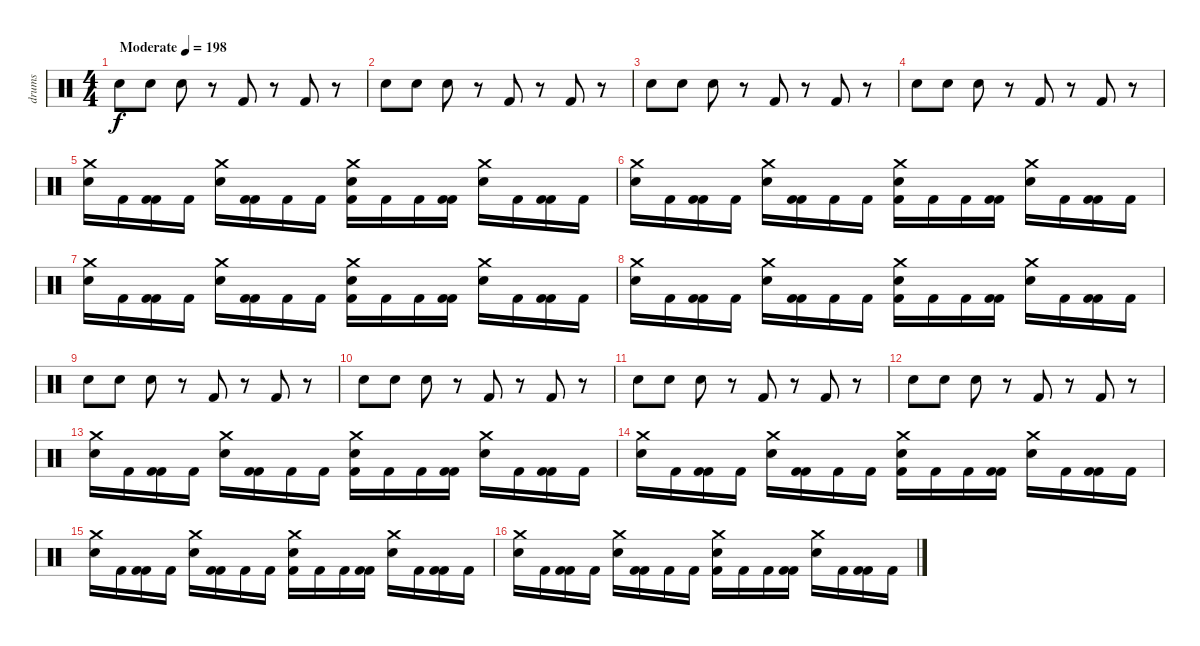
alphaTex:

\track ("drums" "drums") {instrument percussion}
\staff {score}
\articulation defaults
\ts (4 4)
\tempo (198 "Moderate")
\clef neutral
\ks c "Snare (hit) 2".8{dy f} "Snare (hit) 2".8 "Snare (hit) 2".8
r.8 "Kick (hit) 2".8 r.8 "Kick (hit) 2".8 r.8 |
"Snare (hit) 2".8 "Snare (hit) 2".8 "Snare (hit) 2".8 r.8 "Kick (hit) 2".8 r.8 "Kick (hit) 2".8 r.8 |
"Snare (hit) 2".8 "Snare (hit) 2".8 "Snare (hit) 2".8 r.8 "Kick (hit) 2".8 r.8 "Kick (hit) 2".8 r.8 |
"Snare (hit) 2".8 "Snare (hit) 2".8 "Snare (hit) 2".8 r.8 "Kick (hit) 2".8 r.8 "Kick (hit) 2".8 r.8 |
("Snare (hit) 2" "Crash medium (hit)").16 "Kick (hit) 2".16 ("Kick (hit) 2" "Kick (hit) 2").16 "Kick (hit) 2".16 ("Snare (hit) 2" "Crash medium (hit)").16 ("Kick (hit) 2" "Kick (hit) 2").16 "Kick (hit) 2".16 "Kick (hit) 2".16 ("Snare (hit) 2" "Kick (hit) 2" "Crash medium (hit)").16 "Kick (hit) 2".16 "Kick (hit) 2".16 ("Kick (hit) 2" "Kick (hit) 2").16 ("Snare (hit) 2" "Crash medium (hit)").16 "Kick (hit) 2".16 ("Kick (hit) 2" "Kick (hit) 2").16 "Kick (hit) 2".16 |
("Snare (hit) 2" "Crash medium (hit)").16 "Kick (hit) 2".16 ("Kick (hit) 2" "Kick (hit) 2").16 "Kick (hit) 2".16 ("Snare (hit) 2" "Crash medium (hit)").16 ("Kick (hit) 2" "Kick (hit) 2").16 "Kick (hit) 2".16 "Kick (hit) 2".16 ("Snare (hit) 2" "Kick (hit) 2" "Crash medium (hit)").16 "Kick (hit) 2".16 "Kick (hit) 2".16 ("Kick (hit) 2" "Kick (hit) 2").16 ("Snare (hit) 2" "Crash medium (hit)").16 "Kick (hit) 2".16 ("Kick (hit) 2" "Kick (hit) 2").16 "Kick (hit) 2".16 |
("Snare (hit) 2" "Crash medium (hit)").16 "Kick (hit) 2".16 ("Kick (hit) 2" "Kick (hit) 2").16 "Kick (hit) 2".16 ("Snare (hit) 2" "Crash medium (hit)").16 ("Kick (hit) 2" "Kick (hit) 2").16 "Kick (hit) 2".16 "Kick (hit) 2".16 ("Snare (hit) 2" "Kick (hit) 2" "Crash medium (hit)").16 "Kick (hit) 2".16 "Kick (hit) 2".16 ("Kick (hit) 2" "Kick (hit) 2").16 ("Snare (hit) 2" "Crash medium (hit)").16 "Kick (hit) 2".16 ("Kick (hit) 2" "Kick (hit) 2").16 "Kick (hit) 2".16 |
("Snare (hit) 2" "Crash medium (hit)").16 "Kick (hit) 2".16 ("Kick (hit) 2" "Kick (hit) 2").16 "Kick (hit) 2".16 ("Snare (hit) 2" "Crash medium (hit)").16 ("Kick (hit) 2" "Kick (hit) 2").16 "Kick (hit) 2".16 "Kick (hit) 2".16 ("Snare (hit) 2" "Kick (hit) 2" "Crash medium (hit)").16 "Kick (hit) 2".16 "Kick (hit) 2".16 ("Kick (hit) 2" "Kick (hit) 2").16 ("Snare (hit) 2" "Crash medium (hit)").16 "Kick (hit) 2".16 ("Kick (hit) 2" "Kick (hit) 2").16 "Kick (hit) 2".16 |
"Snare (hit) 2".8 "Snare (hit) 2".8 "Snare (hit) 2".8 r.8 "Kick (hit) 2".8 r.8 "Kick (hit) 2".8 r.8 |
"Snare (hit) 2".8 "Snare (hit) 2".8 "Snare (hit) 2".8 r.8 "Kick (hit) 2".8 r.8 "Kick (hit) 2".8 r.8 |
"Snare (hit) 2".8 "Snare (hit) 2".8 "Snare (hit) 2".8 r.8 "Kick (hit) 2".8 r.8 "Kick (hit) 2".8 r.8 |
"Snare (hit) 2".8 "Snare (hit) 2".8 "Snare (hit) 2".8 r.8 "Kick (hit) 2".8 r.8 "Kick (hit) 2".8 r.8 |
("Snare (hit) 2" "Crash medium (hit)").16 "Kick (hit) 2".16 ("Kick (hit) 2" "Kick (hit) 2").16 "Kick (hit) 2".16 ("Snare (hit) 2" "Crash medium (hit)").16 ("Kick (hit) 2" "Kick (hit) 2").16 "Kick (hit) 2".16 "Kick (hit) 2".16 ("Snare (hit) 2" "Kick (hit) 2" "Crash medium (hit)").16 "Kick (hit) 2".16 "Kick (hit) 2".16 ("Kick (hit) 2" "Kick (hit) 2").16 ("Snare (hit) 2" "Crash medium (hit)").16 "Kick (hit) 2".16 ("Kick (hit) 2" "Kick (hit) 2").16 "Kick (hit) 2".16 |
("Snare (hit) 2" "Crash medium (hit)").16 "Kick (hit) 2".16 ("Kick (hit) 2" "Kick (hit) 2").16 "Kick (hit) 2".16 ("Snare (hit) 2" "Crash medium (hit)").16 ("Kick (hit) 2" "Kick (hit) 2").16 "Kick (hit) 2".16 "Kick (hit) 2".16 ("Snare (hit) 2" "Kick (hit) 2" "Crash medium (hit)").16 "Kick (hit) 2".16 "Kick (hit) 2".16 ("Kick (hit) 2" "Kick (hit) 2").16 ("Snare (hit) 2" "Crash medium (hit)").16 "Kick (hit) 2".16 ("Kick (hit) 2" "Kick (hit) 2").16 "Kick (hit) 2".16 |
("Snare (hit) 2" "Crash medium (hit)").16 "Kick (hit) 2".16 ("Kick (hit) 2" "Kick (hit) 2").16 "Kick (hit) 2".16 ("Snare (hit) 2" "Crash medium (hit)").16 ("Kick (hit) 2" "Kick (hit) 2").16 "Kick (hit) 2".16 "Kick (hit) 2".16 ("Snare (hit) 2" "Kick (hit) 2" "Crash medium (hit)").16 "Kick (hit) 2".16 "Kick (hit) 2".16 ("Kick (hit) 2" "Kick (hit) 2").16 ("Snare (hit) 2" "Crash medium (hit)").16 "Kick (hit) 2".16 ("Kick (hit) 2" "Kick (hit) 2").16 "Kick (hit) 2".16 |
("Snare (hit) 2" "Crash medium (hit)").16 "Kick (hit) 2".16 ("Kick (hit) 2" "Kick (hit) 2").16 "Kick (hit) 2".16 ("Snare (hit) 2" "Crash medium (hit)").16 ("Kick (hit) 2" "Kick (hit) 2").16 "Kick (hit) 2".16 "Kick (hit) 2".16 ("Snare (hit) 2" "Kick (hit) 2" "Crash medium (hit)").16 "Kick (hit) 2".16 "Kick (hit) 2".16 ("Kick (hit) 2" "Kick (hit) 2").16 ("Snare (hit) 2" "Crash medium (hit)").16 "Kick (hit) 2".16 ("Kick (hit) 2" "Kick (hit) 2").16 "Kick (hit) 2".16
